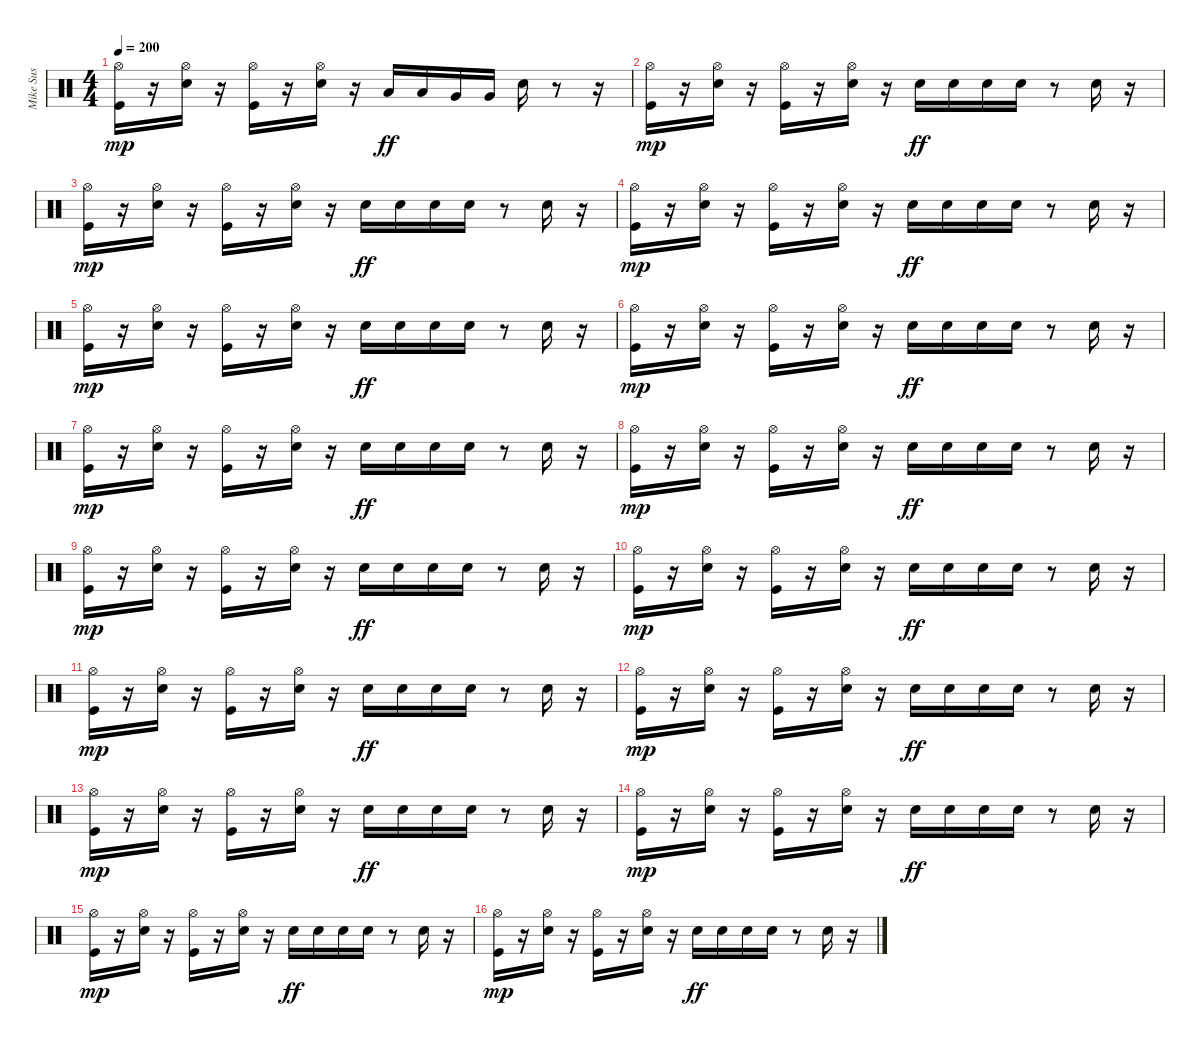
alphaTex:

\track ("Mike Sus" "Mike Sus") {instrument percussion}
\staff {score}
\articulation defaults
\ts (4 4)
\tempo 200
\clef neutral
\ks c
("Kick (hit)" "Hi-Hat (open)").16{dy mp} r.16 ("Snare (hit) 2" "Hi-Hat (open)").16 r.16 ("Kick (hit)" "Hi-Hat (open)").16 r.16 ("Snare (hit) 2" "Hi-Hat (open)").16 r.16 "Low Tom (hit)".16{dy ff} "Low Tom (hit)".16 "Very Low Tom (hit)".16 "Very Low Tom (hit)".16 "Snare (hit) 2".16 r.8 r.16 |
("Kick (hit)" "Hi-Hat (open)").16{dy mp} r.16 ("Snare (hit) 2" "Hi-Hat (open)").16 r.16 ("Kick (hit)" "Hi-Hat (open)").16 r.16 ("Snare (hit) 2" "Hi-Hat (open)").16 r.16 "Snare (hit) 2".16{dy ff} "Snare (hit) 2".16 "Snare (hit) 2".16 "Snare (hit) 2".16 r.8 "Snare (hit) 2".16 r.16 |
("Kick (hit)" "Hi-Hat (open)").16{dy mp} r.16 ("Snare (hit) 2" "Hi-Hat (open)").16 r.16 ("Kick (hit)" "Hi-Hat (open)").16 r.16 ("Snare (hit) 2" "Hi-Hat (open)").16 r.16 "Snare (hit) 2".16{dy ff} "Snare (hit) 2".16 "Snare (hit) 2".16 "Snare (hit) 2".16 r.8 "Snare (hit) 2".16 r.16 |
("Kick (hit)" "Hi-Hat (open)").16{dy mp} r.16 ("Snare (hit) 2" "Hi-Hat (open)").16 r.16 ("Kick (hit)" "Hi-Hat (open)").16 r.16 ("Snare (hit) 2" "Hi-Hat (open)").16 r.16 "Snare (hit) 2".16{dy ff} "Snare (hit) 2".16 "Snare (hit) 2".16 "Snare (hit) 2".16 r.8 "Snare (hit) 2".16 r.16 |
("Kick (hit)" "Hi-Hat (open)").16{dy mp} r.16 ("Snare (hit) 2" "Hi-Hat (open)").16 r.16 ("Kick (hit)" "Hi-Hat (open)").16 r.16 ("Snare (hit) 2" "Hi-Hat (open)").16 r.16 "Snare (hit) 2".16{dy ff} "Snare (hit) 2".16 "Snare (hit) 2".16 "Snare (hit) 2".16 r.8 "Snare (hit) 2".16 r.16 |
("Kick (hit)" "Hi-Hat (open)").16{dy mp} r.16 ("Snare (hit) 2" "Hi-Hat (open)").16 r.16 ("Kick (hit)" "Hi-Hat (open)").16 r.16 ("Snare (hit) 2" "Hi-Hat (open)").16 r.16 "Snare (hit) 2".16{dy ff} "Snare (hit) 2".16 "Snare (hit) 2".16 "Snare (hit) 2".16 r.8 "Snare (hit) 2".16 r.16 |
("Kick (hit)" "Hi-Hat (open)").16{dy mp} r.16 ("Snare (hit) 2" "Hi-Hat (open)").16 r.16 ("Kick (hit)" "Hi-Hat (open)").16 r.16 ("Snare (hit) 2" "Hi-Hat (open)").16 r.16 "Snare (hit) 2".16{dy ff} "Snare (hit) 2".16 "Snare (hit) 2".16 "Snare (hit) 2".16 r.8 "Snare (hit) 2".16 r.16 |
("Kick (hit)" "Hi-Hat (open)").16{dy mp} r.16 ("Snare (hit) 2" "Hi-Hat (open)").16 r.16 ("Kick (hit)" "Hi-Hat (open)").16 r.16 ("Snare (hit) 2" "Hi-Hat (open)").16 r.16 "Snare (hit) 2".16{dy ff} "Snare (hit) 2".16 "Snare (hit) 2".16 "Snare (hit) 2".16 r.8 "Snare (hit) 2".16 r.16 |
("Kick (hit)" "Hi-Hat (open)").16{dy mp} r.16 ("Snare (hit) 2" "Hi-Hat (open)").16 r.16 ("Kick (hit)" "Hi-Hat (open)").16 r.16 ("Snare (hit) 2" "Hi-Hat (open)").16 r.16 "Snare (hit) 2".16{dy ff} "Snare (hit) 2".16 "Snare (hit) 2".16 "Snare (hit) 2".16 r.8 "Snare (hit) 2".16 r.16 |
("Kick (hit)" "Hi-Hat (open)").16{dy mp} r.16 ("Snare (hit) 2" "Hi-Hat (open)").16 r.16 ("Kick (hit)" "Hi-Hat (open)").16 r.16 ("Snare (hit) 2" "Hi-Hat (open)").16 r.16 "Snare (hit) 2".16{dy ff} "Snare (hit) 2".16 "Snare (hit) 2".16 "Snare (hit) 2".16 r.8 "Snare (hit) 2".16 r.16 |
("Kick (hit)" "Hi-Hat (open)").16{dy mp} r.16 ("Snare (hit) 2" "Hi-Hat (open)").16 r.16 ("Kick (hit)" "Hi-Hat (open)").16 r.16 ("Snare (hit) 2" "Hi-Hat (open)").16 r.16 "Snare (hit) 2".16{dy ff} "Snare (hit) 2".16 "Snare (hit) 2".16 "Snare (hit) 2".16 r.8 "Snare (hit) 2".16 r.16 |
("Kick (hit)" "Hi-Hat (open)").16{dy mp} r.16 ("Snare (hit) 2" "Hi-Hat (open)").16 r.16 ("Kick (hit)" "Hi-Hat (open)").16 r.16 ("Snare (hit) 2" "Hi-Hat (open)").16 r.16 "Snare (hit) 2".16{dy ff} "Snare (hit) 2".16 "Snare (hit) 2".16 "Snare (hit) 2".16 r.8 "Snare (hit) 2".16 r.16 |
("Kick (hit)" "Hi-Hat (open)").16{dy mp} r.16 ("Snare (hit) 2" "Hi-Hat (open)").16 r.16 ("Kick (hit)" "Hi-Hat (open)").16 r.16 ("Snare (hit) 2" "Hi-Hat (open)").16 r.16 "Snare (hit) 2".16{dy ff} "Snare (hit) 2".16 "Snare (hit) 2".16 "Snare (hit) 2".16 r.8 "Snare (hit) 2".16 r.16 |
("Kick (hit)" "Hi-Hat (open)").16{dy mp} r.16 ("Snare (hit) 2" "Hi-Hat (open)").16 r.16 ("Kick (hit)" "Hi-Hat (open)").16 r.16 ("Snare (hit) 2" "Hi-Hat (open)").16 r.16 "Snare (hit) 2".16{dy ff} "Snare (hit) 2".16 "Snare (hit) 2".16 "Snare (hit) 2".16 r.8 "Snare (hit) 2".16 r.16 |
("Kick (hit)" "Hi-Hat (open)").16{dy mp} r.16 ("Snare (hit) 2" "Hi-Hat (open)").16 r.16 ("Kick (hit)" "Hi-Hat (open)").16 r.16 ("Snare (hit) 2" "Hi-Hat (open)").16 r.16 "Snare (hit) 2".16{dy ff} "Snare (hit) 2".16 "Snare (hit) 2".16 "Snare (hit) 2".16 r.8 "Snare (hit) 2".16 r.16 |
("Kick (hit)" "Hi-Hat (open)").16{dy mp} r.16 ("Snare (hit) 2" "Hi-Hat (open)").16 r.16 ("Kick (hit)" "Hi-Hat (open)").16 r.16 ("Snare (hit) 2" "Hi-Hat (open)").16 r.16 "Snare (hit) 2".16{dy ff} "Snare (hit) 2".16 "Snare (hit) 2".16 "Snare (hit) 2".16 r.8 "Snare (hit) 2".16 r.16
